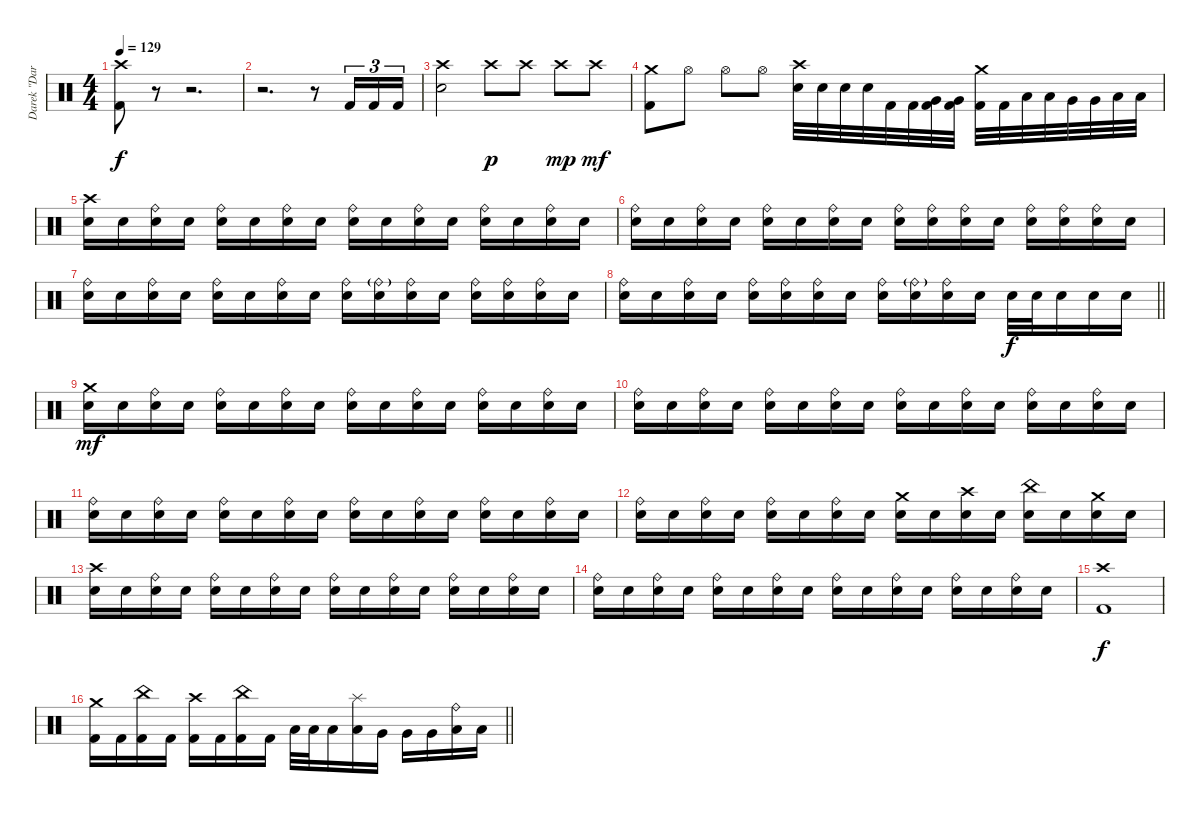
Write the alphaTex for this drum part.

\track ("Darek \"Daray\" Brzozowski " "Darek \"Dar") {instrument percussion}
\staff {score}
\articulation defaults
\ts (4 4)
\tempo 129
\clef neutral
\ks c
("Crash high (hit)" "Kick (hit) 2").8{dy f} r.8 r.2{d} |
r.2{d} r.8 "Kick (hit) 2".16{tu (3 2)} "Kick (hit) 2".16{tu (3 2)} "Kick (hit) 2".16{tu (3 2)} |
("Crash high (hit)" "Electric Snare (hit)").2 "Crash high (hit)".8{dy p} "Crash high (hit)".8 "Crash high (hit)".8{dy mp} "Crash high (hit)".8{dy mf} |
("Crash medium (hit)" "Kick (hit) 2").8 "Hi-Hat (open)".8 "Hi-Hat (open)".8 "Hi-Hat (open)".8 ("Crash high (hit)" "Electric Snare (hit)").32 "Electric Snare (hit)".32 "Electric Snare (hit)".32 "Electric Snare (hit)".32 "Kick (hit) 2".32 "Kick (hit) 2".32 ("Very Low Tom (hit)" "Kick (hit) 2").32 ("Very Low Tom (hit)" "Kick (hit) 2").32 ("Crash medium (hit)" "Kick (hit) 2").32 "Kick (hit) 2".32 "Low Tom (hit)".32 "Low Tom (hit)".32 "Very Low Tom (hit)".32 "Very Low Tom (hit)".32 "Low Floor Tom (hit)".32 "Low Floor Tom (hit)".32 |
("Crash high (hit)" "Electric Snare (hit)").16 "Electric Snare (hit)".16 ("Ride (bell)" "Electric Snare (hit)").16 "Electric Snare (hit)".16 ("Ride (bell)" "Electric Snare (hit)").16 "Electric Snare (hit)".16 ("Ride (bell)" "Electric Snare (hit)").16 "Electric Snare (hit)".16 ("Ride (bell)" "Electric Snare (hit)").16 "Electric Snare (hit)".16 ("Ride (bell)" "Electric Snare (hit)").16 "Electric Snare (hit)".16 ("Ride (bell)" "Electric Snare (hit)").16 "Electric Snare (hit)".16 ("Ride (bell)" "Electric Snare (hit)").16 "Electric Snare (hit)".16 |
("Ride (bell)" "Electric Snare (hit)").16 "Electric Snare (hit)".16 ("Ride (bell)" "Electric Snare (hit)").16 "Electric Snare (hit)".16 ("Ride (bell)" "Electric Snare (hit)").16 "Electric Snare (hit)".16 ("Ride (bell)" "Electric Snare (hit)").16 "Electric Snare (hit)".16 ("Ride (bell)" "Electric Snare (hit)").16 ("Ride (bell)" "Electric Snare (hit)").16 ("Ride (bell)" "Electric Snare (hit)").16 "Electric Snare (hit)".16 ("Ride (bell)" "Electric Snare (hit)").16 ("Ride (bell)" "Electric Snare (hit)").16 ("Ride (bell)" "Electric Snare (hit)").16 "Electric Snare (hit)".16 |
("Ride (bell)" "Electric Snare (hit)").16 "Electric Snare (hit)".16 ("Ride (bell)" "Electric Snare (hit)").16 "Electric Snare (hit)".16 ("Ride (bell)" "Electric Snare (hit)").16 "Electric Snare (hit)".16 ("Ride (bell)" "Electric Snare (hit)").16 "Electric Snare (hit)".16 ("Ride (bell)" "Electric Snare (hit)").16 ("Ride (bell)"{g} "Electric Snare (hit)").16 ("Ride (bell)" "Electric Snare (hit)").16 "Electric Snare (hit)".16 ("Ride (bell)" "Electric Snare (hit)").16 ("Ride (bell)" "Electric Snare (hit)").16 ("Ride (bell)" "Electric Snare (hit)").16 "Electric Snare (hit)".16 |
\barLineRight lightlight
("Ride (bell)" "Electric Snare (hit)").16 "Electric Snare (hit)".16 ("Ride (bell)" "Electric Snare (hit)").16 "Electric Snare (hit)".16 ("Ride (bell)" "Electric Snare (hit)").16 ("Ride (bell)" "Electric Snare (hit)").16 ("Ride (bell)" "Electric Snare (hit)").16 "Electric Snare (hit)".16 ("Ride (bell)" "Electric Snare (hit)").16 ("Ride (bell)"{g} "Electric Snare (hit)").16 ("Ride (bell)" "Electric Snare (hit)").16 "Electric Snare (hit)".16 "Electric Snare (hit)".32{dy f} "Electric Snare (hit)".32 "Electric Snare (hit)".16 "Electric Snare (hit)".16 "Electric Snare (hit)".16 |
("Crash medium (hit)" "Electric Snare (hit)").16{dy mf} "Electric Snare (hit)".16 ("Ride (bell)" "Electric Snare (hit)").16 "Electric Snare (hit)".16 ("Ride (bell)" "Electric Snare (hit)").16 "Electric Snare (hit)".16 ("Ride (bell)" "Electric Snare (hit)").16 "Electric Snare (hit)".16 ("Ride (bell)" "Electric Snare (hit)").16 "Electric Snare (hit)".16 ("Ride (bell)" "Electric Snare (hit)").16 "Electric Snare (hit)".16 ("Ride (bell)" "Electric Snare (hit)").16 "Electric Snare (hit)".16 ("Ride (bell)" "Electric Snare (hit)").16 "Electric Snare (hit)".16 |
("Ride (bell)" "Electric Snare (hit)").16 "Electric Snare (hit)".16 ("Ride (bell)" "Electric Snare (hit)").16 "Electric Snare (hit)".16 ("Ride (bell)" "Electric Snare (hit)").16 "Electric Snare (hit)".16 ("Ride (bell)" "Electric Snare (hit)").16 "Electric Snare (hit)".16 ("Ride (bell)" "Electric Snare (hit)").16 "Electric Snare (hit)".16 ("Ride (bell)" "Electric Snare (hit)").16 "Electric Snare (hit)".16 ("Ride (bell)" "Electric Snare (hit)").16 "Electric Snare (hit)".16 ("Ride (bell)" "Electric Snare (hit)").16 "Electric Snare (hit)".16 |
("Ride (bell)" "Electric Snare (hit)").16 "Electric Snare (hit)".16 ("Ride (bell)" "Electric Snare (hit)").16 "Electric Snare (hit)".16 ("Ride (bell)" "Electric Snare (hit)").16 "Electric Snare (hit)".16 ("Ride (bell)" "Electric Snare (hit)").16 "Electric Snare (hit)".16 ("Ride (bell)" "Electric Snare (hit)").16 "Electric Snare (hit)".16 ("Ride (bell)" "Electric Snare (hit)").16 "Electric Snare (hit)".16 ("Ride (bell)" "Electric Snare (hit)").16 "Electric Snare (hit)".16 ("Ride (bell)" "Electric Snare (hit)").16 "Electric Snare (hit)".16 |
("Ride (bell)" "Electric Snare (hit)").16 "Electric Snare (hit)".16 ("Ride (bell)" "Electric Snare (hit)").16 "Electric Snare (hit)".16 ("Ride (bell)" "Electric Snare (hit)").16 "Electric Snare (hit)".16 ("Ride (bell)" "Electric Snare (hit)").16 "Electric Snare (hit)".16 ("Crash medium (hit)" "Electric Snare (hit)").16 "Electric Snare (hit)".16 ("Crash high (hit)" "Electric Snare (hit)").16 "Electric Snare (hit)".16 ("China (hit)" "Electric Snare (hit)").16 "Electric Snare (hit)".16 ("Crash medium (hit)" "Electric Snare (hit)").16 "Electric Snare (hit)".16 |
("Crash high (hit)" "Electric Snare (hit)").16 "Electric Snare (hit)".16 ("Ride (bell)" "Electric Snare (hit)").16 "Electric Snare (hit)".16 ("Ride (bell)" "Electric Snare (hit)").16 "Electric Snare (hit)".16 ("Ride (bell)" "Electric Snare (hit)").16 "Electric Snare (hit)".16 ("Ride (bell)" "Electric Snare (hit)").16 "Electric Snare (hit)".16 ("Ride (bell)" "Electric Snare (hit)").16 "Electric Snare (hit)".16 ("Ride (bell)" "Electric Snare (hit)").16 "Electric Snare (hit)".16 ("Ride (bell)" "Electric Snare (hit)").16 "Electric Snare (hit)".16 |
("Ride (bell)" "Electric Snare (hit)").16 "Electric Snare (hit)".16 ("Ride (bell)" "Electric Snare (hit)").16 "Electric Snare (hit)".16 ("Ride (bell)" "Electric Snare (hit)").16 "Electric Snare (hit)".16 ("Ride (bell)" "Electric Snare (hit)").16 "Electric Snare (hit)".16 ("Ride (bell)" "Electric Snare (hit)").16 "Electric Snare (hit)".16 ("Ride (bell)" "Electric Snare (hit)").16 "Electric Snare (hit)".16 ("Ride (bell)" "Electric Snare (hit)").16 "Electric Snare (hit)".16 ("Ride (bell)" "Electric Snare (hit)").16 "Electric Snare (hit)".16 |
("Crash high (hit)" "Kick (hit) 2").1{dy f} |
\barLineRight lightlight
("Crash medium (hit)" "Kick (hit) 2").16 "Kick (hit) 2".16 ("China (hit)" "Kick (hit) 2").16 "Kick (hit) 2".16 ("Crash high (hit)" "Kick (hit) 2").16 "Kick (hit) 2".16 ("China (hit)" "Kick (hit) 2").16 "Kick (hit) 2".16 "Low Tom (hit)".32 "Low Tom (hit)".32 "Low Tom (hit)".16 ("Splash (hit)" "Low Tom (hit)").16 "Very Low Tom (hit)".16 "Very Low Tom (hit)".16 "Very Low Tom (hit)".16 ("Ride (bell)" "Low Floor Tom (hit)").16 "Low Floor Tom (hit)".16
